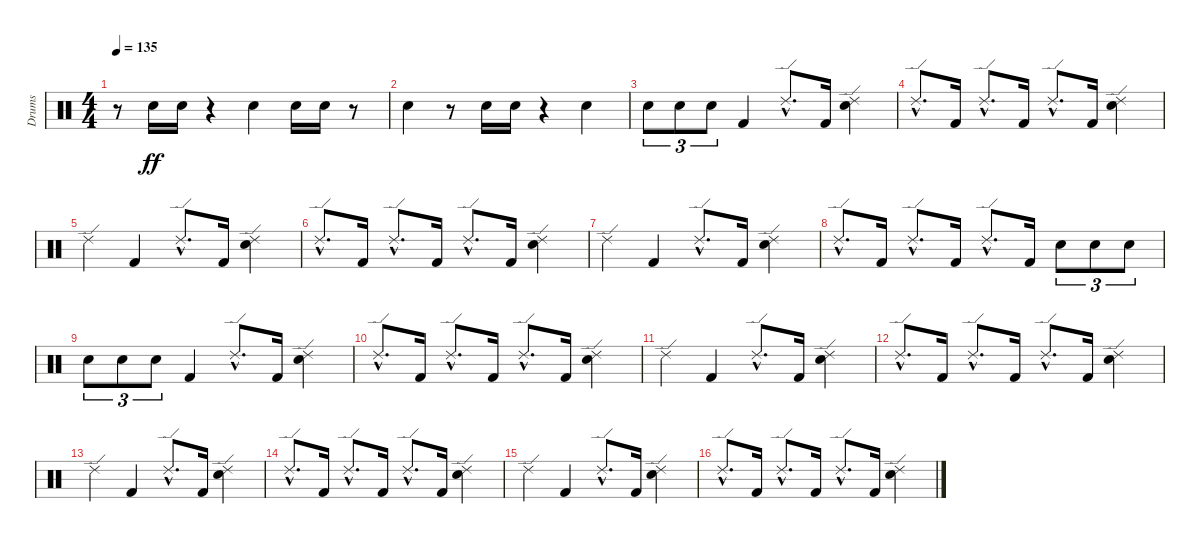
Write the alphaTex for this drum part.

\track ("Drums" "Drums") {instrument percussion}
\staff {score}
\articulation defaults
\ts (4 4)
\tempo 135
\clef neutral
\ks c
r.8{dy ff} "Electric Snare (hit)".16 "Electric Snare (hit)".16 r.4 "Electric Snare (hit)".4 "Electric Snare (hit)".16 "Electric Snare (hit)".16 r.8 |
"Electric Snare (hit)".4 r.8 "Electric Snare (hit)".16 "Electric Snare (hit)".16 r.4 "Electric Snare (hit)".4 |
"Electric Snare (hit)".8{tu (3 2)} "Electric Snare (hit)".8{tu (3 2)} "Electric Snare (hit)".8{tu (3 2)} "Kick (hit) 2".4 "Ride (edge) 2"{hac}.8{d} "Kick (hit) 2".16 ("Electric Snare (hit)" "Ride (edge) 2").4 |
"Ride (edge) 2"{hac}.8{d} "Kick (hit) 2".16 "Ride (edge) 2"{hac}.8{d} "Kick (hit) 2".16 "Ride (edge) 2"{hac}.8{d} "Kick (hit) 2".16 ("Electric Snare (hit)" "Ride (edge) 2").4 |
"Ride (edge) 2".4 "Kick (hit) 2".4 "Ride (edge) 2"{hac}.8{d} "Kick (hit) 2".16 ("Electric Snare (hit)" "Ride (edge) 2").4 |
"Ride (edge) 2"{hac}.8{d} "Kick (hit) 2".16 "Ride (edge) 2"{hac}.8{d} "Kick (hit) 2".16 "Ride (edge) 2"{hac}.8{d} "Kick (hit) 2".16 ("Electric Snare (hit)" "Ride (edge) 2").4 |
"Ride (edge) 2".4 "Kick (hit) 2".4 "Ride (edge) 2"{hac}.8{d} "Kick (hit) 2".16 ("Electric Snare (hit)" "Ride (edge) 2").4 |
"Ride (edge) 2"{hac}.8{d} "Kick (hit) 2".16 "Ride (edge) 2"{hac}.8{d} "Kick (hit) 2".16 "Ride (edge) 2"{hac}.8{d} "Kick (hit) 2".16 "Electric Snare (hit)".8{tu (3 2)} "Electric Snare (hit)".8{tu (3 2)} "Electric Snare (hit)".8{tu (3 2)} |
"Electric Snare (hit)".8{tu (3 2)} "Electric Snare (hit)".8{tu (3 2)} "Electric Snare (hit)".8{tu (3 2)} "Kick (hit) 2".4 "Ride (edge) 2"{hac}.8{d} "Kick (hit) 2".16 ("Electric Snare (hit)" "Ride (edge) 2").4 |
"Ride (edge) 2"{hac}.8{d} "Kick (hit) 2".16 "Ride (edge) 2"{hac}.8{d} "Kick (hit) 2".16 "Ride (edge) 2"{hac}.8{d} "Kick (hit) 2".16 ("Electric Snare (hit)" "Ride (edge) 2").4 |
"Ride (edge) 2".4 "Kick (hit) 2".4 "Ride (edge) 2"{hac}.8{d} "Kick (hit) 2".16 ("Electric Snare (hit)" "Ride (edge) 2").4 |
"Ride (edge) 2"{hac}.8{d} "Kick (hit) 2".16 "Ride (edge) 2"{hac}.8{d} "Kick (hit) 2".16 "Ride (edge) 2"{hac}.8{d} "Kick (hit) 2".16 ("Electric Snare (hit)" "Ride (edge) 2").4 |
"Ride (edge) 2".4 "Kick (hit) 2".4 "Ride (edge) 2"{hac}.8{d} "Kick (hit) 2".16 ("Electric Snare (hit)" "Ride (edge) 2").4 |
"Ride (edge) 2"{hac}.8{d} "Kick (hit) 2".16 "Ride (edge) 2"{hac}.8{d} "Kick (hit) 2".16 "Ride (edge) 2"{hac}.8{d} "Kick (hit) 2".16 ("Electric Snare (hit)" "Ride (edge) 2").4 |
"Ride (edge) 2".4 "Kick (hit) 2".4 "Ride (edge) 2"{hac}.8{d} "Kick (hit) 2".16 ("Electric Snare (hit)" "Ride (edge) 2").4 |
"Ride (edge) 2"{hac}.8{d} "Kick (hit) 2".16 "Ride (edge) 2"{hac}.8{d} "Kick (hit) 2".16 "Ride (edge) 2"{hac}.8{d} "Kick (hit) 2".16 ("Electric Snare (hit)" "Ride (edge) 2").4
